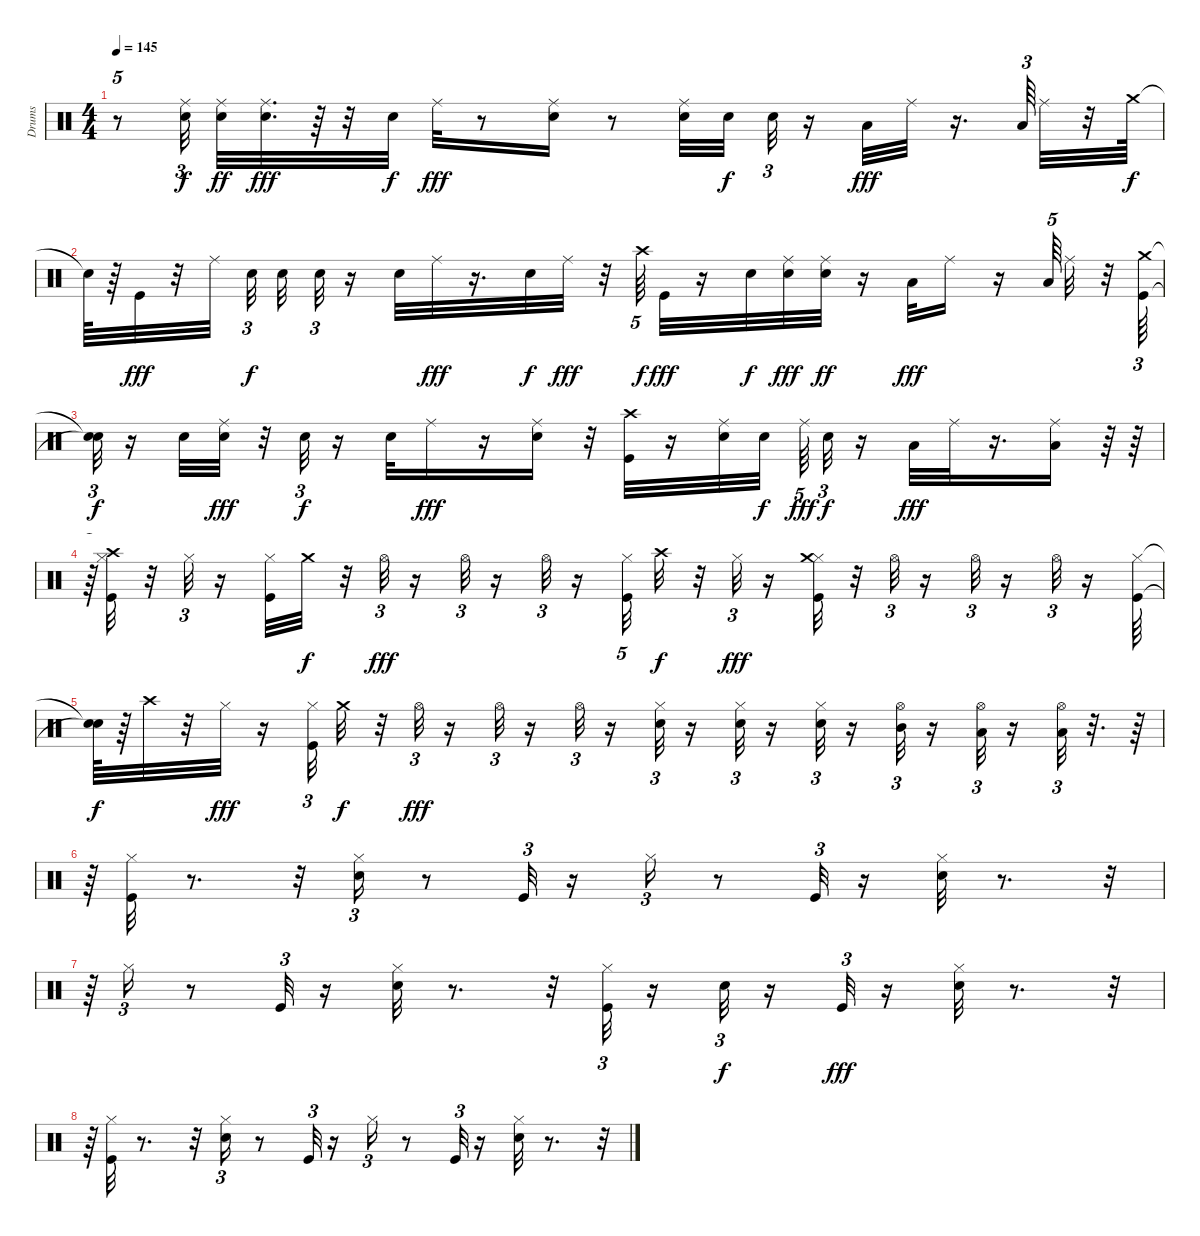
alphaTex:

\track ("Drums" "Drums") {instrument percussion}
\staff {score}
\articulation defaults
\ts (4 4)
\tempo 145
\clef neutral
\ks c
r.8{tu (5 4) dy fff} ("Ride (middle)" "Electric Snare (hit)").32{tu (3 2) dy f beam splitsecondary} ("Electric Snare (hit)" "Ride (middle)").32{dy ff} ("Ride (middle)" "Electric Snare (hit)").32{d dy fff} r.64 r.32 "Electric Snare (hit)".32{dy f} "Ride (middle)".32{dy fff} r.8 ("Electric Snare (hit)" "Ride (middle)").16 r.8 ("Electric Snare (hit)" "Ride (middle)").32 "Electric Snare (hit)".32{dy f beam splitsecondary} "Electric Snare (hit)".32{tu (3 2)} r.16 "Low Floor Tom (hit)".32{dy fff} "Ride (middle)".32 r.16{d} "Low Floor Tom (hit)".64{tu (3 2)} "Ride (middle)".32 r.32 "Crash medium (hit)".64{dy f} |
"Snare (hit)"{t}.64 r.64 "Kick (hit)".32{dy fff} r.32 "Ride (middle)".32{beam splitsecondary} "Electric Snare (hit)".32{tu (3 2) dy f beam splitsecondary} "Electric Snare (hit)".32 "Electric Snare (hit)".32{tu (3 2)} r.16 "Electric Snare (hit)".32 "Ride (middle)".32{dy fff} r.16{d} "Electric Snare (hit)".32{dy f} "Ride (middle)".32{dy fff} r.32 "Crash high (hit)".64{tu (5 4) dy f} "Kick (hit)".32{dy fff} r.16 "Electric Snare (hit)".32{dy f} ("Ride (middle)" "Electric Snare (hit)").32{dy fff} ("Electric Snare (hit)" "Ride (middle)").32{dy ff} r.16 "Low Tom (hit)".32{dy fff} "Ride (middle)".16 r.16 "Low Tom (hit)".64{tu (5 4)} "Ride (middle)".32 r.32 ("Kick (hit)" "Crash medium (hit)").64{tu (3 2)} |
("Snare (hit)"{t} "Snare (hit)"{t}).32{tu (3 2) dy f} r.16 "Electric Snare (hit)".32 ("Ride (middle)" "Electric Snare (hit)").32{dy fff} r.32 "Electric Snare (hit)".32{tu (3 2) dy f} r.16 "Electric Snare (hit)".32 "Ride (middle)".16{dy fff} r.16 ("Electric Snare (hit)" "Ride (middle)").16 r.32 ("Crash high (hit)" "Kick (hit)").32 r.16 ("Electric Snare (hit)" "Ride (middle)").32 "Electric Snare (hit)".32{dy f beam splitsecondary} "Ride (middle)".64{tu (5 4) dy fff} "Electric Snare (hit)".32{tu (3 2) dy f} r.16 "Low Floor Tom (hit)".32{dy fff} "Ride (middle)".32 r.16{d} ("Low Floor Tom (hit)" "Ride (middle)").16 r.64 r.64 |
r.64{tu (5 4)} ("Kick (hit)" "Hi-Hat (closed)" "Crash high (hit)").32 r.32 "Hi-Hat (closed)".32{tu (3 2)} r.16 ("Hi-Hat (closed)" "Kick (hit)").32 "Crash medium (hit)".32{dy f} r.32 "Hi-Hat (open)".32{tu (3 2) dy fff} r.16 "Hi-Hat (open)".32{tu (3 2)} r.16 "Hi-Hat (open)".32{tu (3 2)} r.16 ("Kick (hit)" "Hi-Hat (closed)").32{tu (5 4)} "Crash high (hit)".32{dy f} r.32 "Hi-Hat (closed)".32{tu (3 2) dy fff} r.16 ("Hi-Hat (closed)" "Kick (hit)" "Crash medium (hit)").32 r.32 "Hi-Hat (open)".32{tu (3 2)} r.16 "Hi-Hat (open)".32{tu (3 2)} r.16 "Hi-Hat (open)".32{tu (3 2)} r.16 ("Kick (hit)" "Hi-Hat (closed)").64 |
("Snare (hit)"{t} "Snare (hit)"{t}).64{dy f} r.64 "Crash high (hit)".32 r.32 "Hi-Hat (closed)".32{dy fff} r.16 ("Kick (hit)" "Hi-Hat (closed)").32{tu (3 2)} "Crash medium (hit)".32{dy f} r.32 "Hi-Hat (open)".32{tu (3 2) dy fff} r.16 "Hi-Hat (open)".32{tu (3 2)} r.16 "Hi-Hat (open)".32{tu (3 2)} r.16 ("Electric Snare (hit)" "Hi-Hat (closed)").32{tu (3 2)} r.16 ("Electric Snare (hit)" "Hi-Hat (closed)").32{tu (3 2)} r.16 ("Electric Snare (hit)" "Hi-Hat (closed)").32{tu (3 2)} r.16 ("Mid Tom (hit)" "Hi-Hat (open)").32{tu (3 2)} r.16 ("Low Tom (hit)" "Hi-Hat (open)").32{tu (3 2)} r.16 ("Low Floor Tom (hit)" "Hi-Hat (open)").32{tu (3 2)} r.32{d} r.64 |
r.64 ("Kick (hit)" "Hi-Hat (closed)").32 r.8{d} r.32 ("Electric Snare (hit)" "Hi-Hat (closed)").16{tu (3 2)} r.8 "Kick (hit)".32{tu (3 2)} r.16 "Hi-Hat (closed)".16{tu (3 2)} r.8 "Kick (hit)".32{tu (3 2)} r.16 ("Electric Snare (hit)" "Hi-Hat (closed)").32 r.8{d} r.32{tu (5 4)} |
r.64 "Hi-Hat (closed)".16{tu (3 2)} r.8 "Kick (hit)".32{tu (3 2)} r.16 ("Electric Snare (hit)" "Hi-Hat (closed)").32 r.8{d} r.32 ("Kick (hit)" "Hi-Hat (closed)").32{tu (3 2)} r.16 "Electric Snare (hit)".32{tu (3 2) dy f} r.16 "Kick (hit)".32{tu (3 2) dy fff} r.16 ("Electric Snare (hit)" "Hi-Hat (closed)").32 r.8{d} r.32{tu (5 4)} |
r.64 ("Kick (hit)" "Hi-Hat (closed)").32 r.8{d} r.32 ("Electric Snare (hit)" "Hi-Hat (closed)").16{tu (3 2)} r.8 "Kick (hit)".32{tu (3 2)} r.16 "Hi-Hat (closed)".16{tu (3 2)} r.8 "Kick (hit)".32{tu (3 2)} r.16 ("Electric Snare (hit)" "Hi-Hat (closed)").32 r.8{d} r.32{tu (5 4)}
